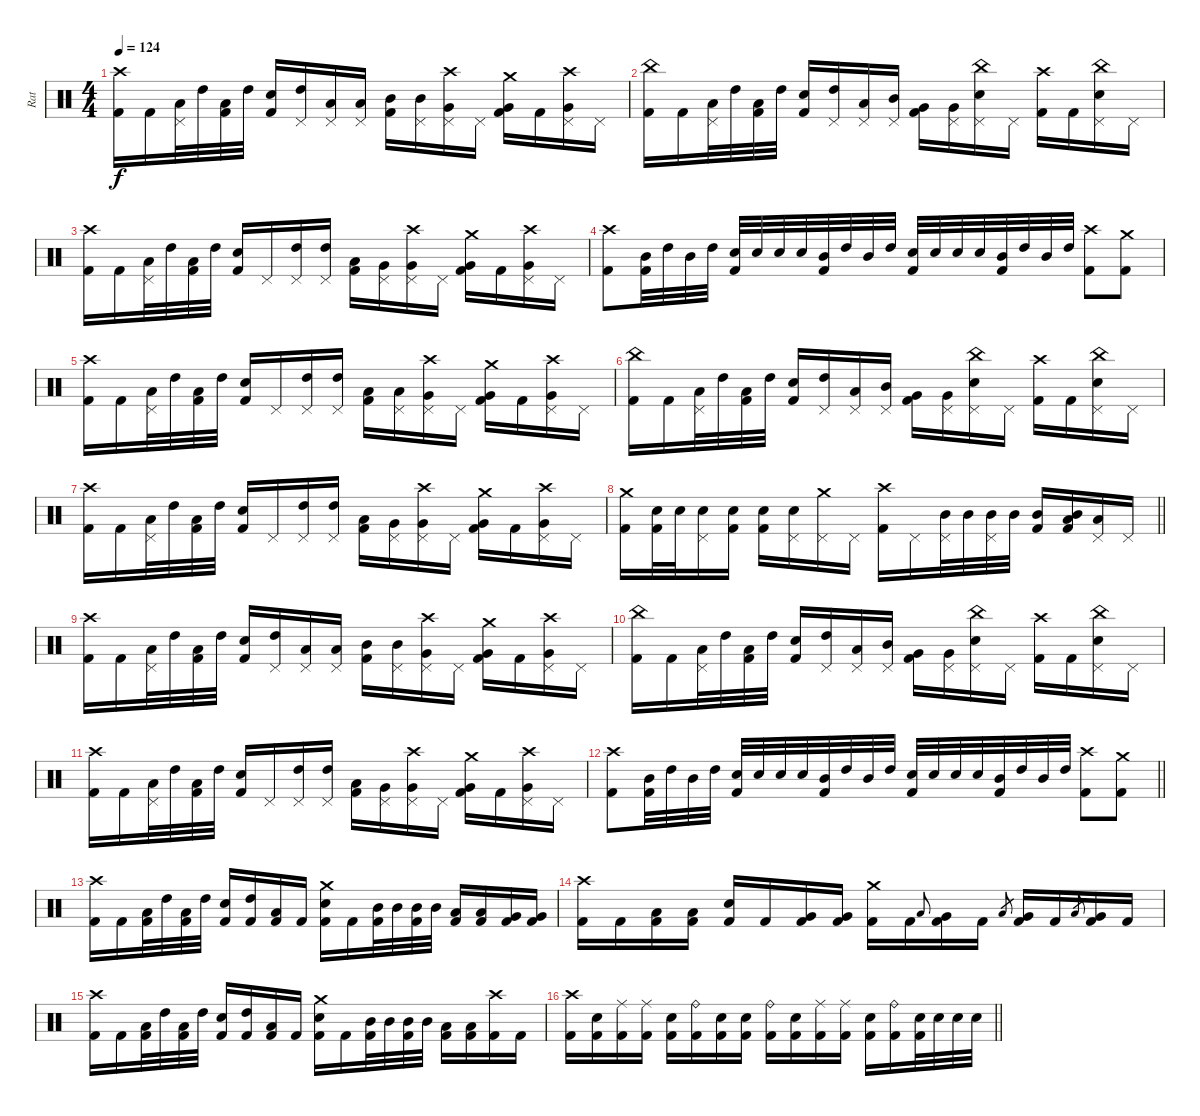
\track ("Rat" "Rat") {instrument percussion}
\staff {score}
\articulation defaults
\ts (4 4)
\tempo 124
\clef neutral
\ks c
("Crash high (hit)" "Kick (hit) 2").16{dy f} "Kick (hit) 2".16 ("Low Tom (hit)" "Pedal Hi-Hat (hit)").32 "High Tom (hit)".32 ("Low Tom (hit)" "Kick (hit) 2").32 "High Tom (hit)".32 ("Electric Snare (hit)" "Kick (hit) 2").16 ("High Tom (hit)" "Pedal Hi-Hat (hit)").16 ("Low Tom (hit)" "Pedal Hi-Hat (hit)").16 ("Low Tom (hit)" "Pedal Hi-Hat (hit)").16 ("Mid Tom (hit)" "Kick (hit) 2").16 ("Mid Tom (hit)" "Pedal Hi-Hat (hit)").16 ("Crash high (hit)" "Very Low Tom (hit)" "Pedal Hi-Hat (hit)").16 "Pedal Hi-Hat (hit)".16 ("Crash medium (hit)" "Very Low Tom (hit)" "Kick (hit) 2").16 "Kick (hit) 2".16 ("Crash high (hit)" "Very Low Tom (hit)" "Pedal Hi-Hat (hit)").16 "Pedal Hi-Hat (hit)".16 |
("China (hit)" "Kick (hit) 2").16 "Kick (hit) 2".16 ("Low Tom (hit)" "Pedal Hi-Hat (hit)").32 "High Tom (hit)".32 ("Low Tom (hit)" "Kick (hit) 2").32 "High Tom (hit)".32 ("Electric Snare (hit)" "Kick (hit) 2").16 ("High Tom (hit)" "Pedal Hi-Hat (hit)").16 ("Low Tom (hit)" "Pedal Hi-Hat (hit)").16 ("Mid Tom (hit)" "Pedal Hi-Hat (hit)").16 ("Very Low Tom (hit)" "Kick (hit) 2").16 ("Very Low Tom (hit)" "Pedal Hi-Hat (hit)").16 ("China (hit)" "Electric Snare (hit)" "Pedal Hi-Hat (hit)").16 "Pedal Hi-Hat (hit)".16 ("Crash high (hit)" "Kick (hit) 2").16 "Kick (hit) 2".16 ("China (hit)" "Electric Snare (hit)" "Pedal Hi-Hat (hit)").16 "Pedal Hi-Hat (hit)".16 |
("Crash high (hit)" "Kick (hit) 2").16 "Kick (hit) 2".16 ("Low Tom (hit)" "Pedal Hi-Hat (hit)").32 "High Tom (hit)".32 ("Low Tom (hit)" "Kick (hit) 2").32 "High Tom (hit)".32 ("Electric Snare (hit)" "Kick (hit) 2").16 "Pedal Hi-Hat (hit)".16 ("High Tom (hit)" "Pedal Hi-Hat (hit)").16 ("High Tom (hit)" "Pedal Hi-Hat (hit)").16 ("Low Tom (hit)" "Kick (hit) 2").16 ("Very Low Tom (hit)" "Pedal Hi-Hat (hit)").16 ("Crash high (hit)" "Very Low Tom (hit)" "Pedal Hi-Hat (hit)").16 "Pedal Hi-Hat (hit)".16 ("Crash medium (hit)" "Very Low Tom (hit)" "Kick (hit) 2").16 "Kick (hit) 2".16 ("Crash high (hit)" "Very Low Tom (hit)" "Pedal Hi-Hat (hit)").16 "Pedal Hi-Hat (hit)".16 |
("Crash high (hit)" "Kick (hit) 2").8 ("Mid Tom (hit)" "Kick (hit) 2").32 "High Tom (hit)".32 "Mid Tom (hit)".32 "High Tom (hit)".32 ("Electric Snare (hit)" "Kick (hit) 2").32 "Electric Snare (hit)".32 "Electric Snare (hit)".32 "Electric Snare (hit)".32 ("Mid Tom (hit)" "Kick (hit) 2").32 "High Tom (hit)".32 "Mid Tom (hit)".32 "High Tom (hit)".32 ("Electric Snare (hit)" "Kick (hit) 2").32 "Electric Snare (hit)".32 "Electric Snare (hit)".32 "Electric Snare (hit)".32 ("Mid Tom (hit)" "Kick (hit) 2").32 "High Tom (hit)".32 "Mid Tom (hit)".32 "High Tom (hit)".32 ("Crash high (hit)" "Kick (hit) 2").8 ("Crash medium (hit)" "Kick (hit) 2").8 |
("Crash high (hit)" "Kick (hit) 2").16 "Kick (hit) 2".16 ("Low Tom (hit)" "Pedal Hi-Hat (hit)").32 "High Tom (hit)".32 ("Low Tom (hit)" "Kick (hit) 2").32 "High Tom (hit)".32 ("Electric Snare (hit)" "Kick (hit) 2").16 "Pedal Hi-Hat (hit)".16 ("High Tom (hit)" "Pedal Hi-Hat (hit)").16 ("High Tom (hit)" "Pedal Hi-Hat (hit)").16 ("Low Tom (hit)" "Kick (hit) 2").16 ("Low Tom (hit)" "Pedal Hi-Hat (hit)").16 ("Crash high (hit)" "Very Low Tom (hit)" "Pedal Hi-Hat (hit)").16 "Pedal Hi-Hat (hit)".16 ("Crash medium (hit)" "Very Low Tom (hit)" "Kick (hit) 2").16 "Kick (hit) 2".16 ("Crash high (hit)" "Very Low Tom (hit)" "Pedal Hi-Hat (hit)").16 "Pedal Hi-Hat (hit)".16 |
("China (hit)" "Kick (hit) 2").16 "Kick (hit) 2".16 ("Low Tom (hit)" "Pedal Hi-Hat (hit)").32 "High Tom (hit)".32 ("Low Tom (hit)" "Kick (hit) 2").32 "High Tom (hit)".32 ("Electric Snare (hit)" "Kick (hit) 2").16 ("High Tom (hit)" "Pedal Hi-Hat (hit)").16 ("Low Tom (hit)" "Pedal Hi-Hat (hit)").16 ("Mid Tom (hit)" "Pedal Hi-Hat (hit)").16 ("Very Low Tom (hit)" "Kick (hit) 2").16 ("Very Low Tom (hit)" "Pedal Hi-Hat (hit)").16 ("China (hit)" "Electric Snare (hit)" "Pedal Hi-Hat (hit)").16 "Pedal Hi-Hat (hit)".16 ("Crash high (hit)" "Kick (hit) 2").16 "Kick (hit) 2".16 ("China (hit)" "Electric Snare (hit)" "Pedal Hi-Hat (hit)").16 "Pedal Hi-Hat (hit)".16 |
("Crash high (hit)" "Kick (hit) 2").16 "Kick (hit) 2".16 ("Low Tom (hit)" "Pedal Hi-Hat (hit)").32 "High Tom (hit)".32 ("Low Tom (hit)" "Kick (hit) 2").32 "High Tom (hit)".32 ("Electric Snare (hit)" "Kick (hit) 2").16 "Pedal Hi-Hat (hit)".16 ("High Tom (hit)" "Pedal Hi-Hat (hit)").16 ("High Tom (hit)" "Pedal Hi-Hat (hit)").16 ("Low Tom (hit)" "Kick (hit) 2").16 ("Very Low Tom (hit)" "Pedal Hi-Hat (hit)").16 ("Crash high (hit)" "Very Low Tom (hit)" "Pedal Hi-Hat (hit)").16 "Pedal Hi-Hat (hit)".16 ("Crash medium (hit)" "Very Low Tom (hit)" "Kick (hit) 2").16 "Kick (hit) 2".16 ("Crash high (hit)" "Very Low Tom (hit)" "Pedal Hi-Hat (hit)").16 "Pedal Hi-Hat (hit)".16 |
\barLineRight lightlight
("Crash medium (hit)" "Kick (hit) 2").16 ("Electric Snare (hit)" "Kick (hit) 2").32 "Electric Snare (hit)".32 ("Electric Snare (hit)" "Pedal Hi-Hat (hit)").16 ("Electric Snare (hit)" "Kick (hit) 2").16 ("Electric Snare (hit)" "Kick (hit) 2").16 ("Electric Snare (hit)" "Pedal Hi-Hat (hit)").16 ("Crash medium (hit)" "Pedal Hi-Hat (hit)").16 "Pedal Hi-Hat (hit)".16 ("Crash high (hit)" "Kick (hit) 2").16 "Pedal Hi-Hat (hit)".16 ("Mid Tom (hit)" "Pedal Hi-Hat (hit)").32 "Mid Tom (hit)".32 ("Mid Tom (hit)" "Pedal Hi-Hat (hit)").32 "Mid Tom (hit)".32 ("Mid Tom (hit)" "Kick (hit) 2").16 ("Mid Tom (hit)" "Low Tom (hit)" "Kick (hit) 2").16 ("Low Tom (hit)" "Pedal Hi-Hat (hit)").16 "Pedal Hi-Hat (hit)".16 |
("Crash high (hit)" "Kick (hit) 2").16 "Kick (hit) 2".16 ("Low Tom (hit)" "Pedal Hi-Hat (hit)").32 "High Tom (hit)".32 ("Low Tom (hit)" "Kick (hit) 2").32 "High Tom (hit)".32 ("Electric Snare (hit)" "Kick (hit) 2").16 ("High Tom (hit)" "Pedal Hi-Hat (hit)").16 ("Low Tom (hit)" "Pedal Hi-Hat (hit)").16 ("Low Tom (hit)" "Pedal Hi-Hat (hit)").16 ("Mid Tom (hit)" "Kick (hit) 2").16 ("Mid Tom (hit)" "Pedal Hi-Hat (hit)").16 ("Crash high (hit)" "Very Low Tom (hit)" "Pedal Hi-Hat (hit)").16 "Pedal Hi-Hat (hit)".16 ("Crash medium (hit)" "Very Low Tom (hit)" "Kick (hit) 2").16 "Kick (hit) 2".16 ("Crash high (hit)" "Very Low Tom (hit)" "Pedal Hi-Hat (hit)").16 "Pedal Hi-Hat (hit)".16 |
("China (hit)" "Kick (hit) 2").16 "Kick (hit) 2".16 ("Low Tom (hit)" "Pedal Hi-Hat (hit)").32 "High Tom (hit)".32 ("Low Tom (hit)" "Kick (hit) 2").32 "High Tom (hit)".32 ("Electric Snare (hit)" "Kick (hit) 2").16 ("High Tom (hit)" "Pedal Hi-Hat (hit)").16 ("Low Tom (hit)" "Pedal Hi-Hat (hit)").16 ("Mid Tom (hit)" "Pedal Hi-Hat (hit)").16 ("Very Low Tom (hit)" "Kick (hit) 2").16 ("Very Low Tom (hit)" "Pedal Hi-Hat (hit)").16 ("China (hit)" "Electric Snare (hit)" "Pedal Hi-Hat (hit)").16 "Pedal Hi-Hat (hit)".16 ("Crash high (hit)" "Kick (hit) 2").16 "Kick (hit) 2".16 ("China (hit)" "Electric Snare (hit)" "Pedal Hi-Hat (hit)").16 "Pedal Hi-Hat (hit)".16 |
("Crash high (hit)" "Kick (hit) 2").16 "Kick (hit) 2".16 ("Low Tom (hit)" "Pedal Hi-Hat (hit)").32 "High Tom (hit)".32 ("Low Tom (hit)" "Kick (hit) 2").32 "High Tom (hit)".32 ("Electric Snare (hit)" "Kick (hit) 2").16 "Pedal Hi-Hat (hit)".16 ("High Tom (hit)" "Pedal Hi-Hat (hit)").16 ("High Tom (hit)" "Pedal Hi-Hat (hit)").16 ("Low Tom (hit)" "Kick (hit) 2").16 ("Very Low Tom (hit)" "Pedal Hi-Hat (hit)").16 ("Crash high (hit)" "Very Low Tom (hit)" "Pedal Hi-Hat (hit)").16 "Pedal Hi-Hat (hit)".16 ("Crash medium (hit)" "Very Low Tom (hit)" "Kick (hit) 2").16 "Kick (hit) 2".16 ("Crash high (hit)" "Very Low Tom (hit)" "Pedal Hi-Hat (hit)").16 "Pedal Hi-Hat (hit)".16 |
\barLineRight lightlight
("Crash high (hit)" "Kick (hit) 2").8 ("Mid Tom (hit)" "Kick (hit) 2").32 "High Tom (hit)".32 "Mid Tom (hit)".32 "High Tom (hit)".32 ("Electric Snare (hit)" "Kick (hit) 2").32 "Electric Snare (hit)".32 "Electric Snare (hit)".32 "Electric Snare (hit)".32 ("Mid Tom (hit)" "Kick (hit) 2").32 "High Tom (hit)".32 "Mid Tom (hit)".32 "High Tom (hit)".32 ("Electric Snare (hit)" "Kick (hit) 2").32 "Electric Snare (hit)".32 "Electric Snare (hit)".32 "Electric Snare (hit)".32 ("Mid Tom (hit)" "Kick (hit) 2").32 "High Tom (hit)".32 "Mid Tom (hit)".32 "High Tom (hit)".32 ("Crash high (hit)" "Kick (hit) 2").8 ("Crash medium (hit)" "Kick (hit) 2").8 |
("Crash high (hit)" "Kick (hit) 2").16 "Kick (hit) 2".16 ("Low Tom (hit)" "Kick (hit) 2").32 "High Tom (hit)".32 ("Low Tom (hit)" "Kick (hit) 2").32 "High Tom (hit)".32 ("Electric Snare (hit)" "Kick (hit) 2").16 ("High Tom (hit)" "Kick (hit) 2").16 ("Low Tom (hit)" "Kick (hit) 2").16 "Kick (hit) 2".16 ("Crash medium (hit)" "Electric Snare (hit)" "Kick (hit) 2").16 "Kick (hit) 2".16 ("Mid Tom (hit)" "Kick (hit) 2").32 "Mid Tom (hit)".32 ("Mid Tom (hit)" "Kick (hit) 2").32 "Mid Tom (hit)".32 ("Low Tom (hit)" "Kick (hit) 2").16 ("Low Tom (hit)" "Kick (hit) 2").16 ("Very Low Tom (hit)" "Kick (hit) 2").16 ("Very Low Tom (hit)" "Kick (hit) 2").16 |
("Crash high (hit)" "Kick (hit) 2").16 "Kick (hit) 2".16 ("Low Tom (hit)" "Kick (hit) 2").16 ("Low Tom (hit)" "Kick (hit) 2").16 ("Electric Snare (hit)" "Kick (hit) 2").16 "Kick (hit) 2".16 ("Very Low Tom (hit)" "Kick (hit) 2").16 ("Very Low Tom (hit)" "Kick (hit) 2").16 ("Crash medium (hit)" "Kick (hit) 2").16 "Kick (hit) 2".16 "Low Tom (hit)".8{gr onbeat} ("Very Low Tom (hit)" "Kick (hit) 2").16 "Kick (hit) 2".16 "Low Tom (hit)".8{gr} ("Very Low Tom (hit)" "Kick (hit) 2").16 "Kick (hit) 2".16 "Low Tom (hit)".8{gr} ("Very Low Tom (hit)" "Kick (hit) 2").16 "Kick (hit) 2".16 |
("Crash high (hit)" "Kick (hit) 2").16 "Kick (hit) 2".16 ("Low Tom (hit)" "Kick (hit) 2").32 "High Tom (hit)".32 ("Low Tom (hit)" "Kick (hit) 2").32 "High Tom (hit)".32 ("Electric Snare (hit)" "Kick (hit) 2").16 ("High Tom (hit)" "Kick (hit) 2").16 ("Low Tom (hit)" "Kick (hit) 2").16 "Kick (hit) 2".16 ("Crash medium (hit)" "Electric Snare (hit)" "Kick (hit) 2").16 "Kick (hit) 2".16 ("Mid Tom (hit)" "Kick (hit) 2").32 "Mid Tom (hit)".32 ("Mid Tom (hit)" "Kick (hit) 2").32 "Mid Tom (hit)".32 ("Low Tom (hit)" "Kick (hit) 2").16 ("Low Tom (hit)" "Kick (hit) 2").16 ("Crash high (hit)" "Kick (hit) 2").16 "Kick (hit) 2".16 |
\barLineRight lightlight
("Crash high (hit)" "Kick (hit) 2").16 ("Electric Snare (hit)" "Kick (hit) 2").16 ("Ride (middle)" "Kick (hit) 2").16 ("Ride (middle)" "Kick (hit) 2").16 ("Electric Snare (hit)" "Kick (hit) 2").16 ("Ride (bell)" "Kick (hit) 2").16 ("Electric Snare (hit)" "Kick (hit) 2").16 ("Electric Snare (hit)" "Kick (hit) 2").16 ("Ride (bell)" "Kick (hit) 2").16 ("Electric Snare (hit)" "Kick (hit) 2").16 ("Ride (middle)" "Kick (hit) 2").16 ("Ride (middle)" "Kick (hit) 2").16 ("Electric Snare (hit)" "Kick (hit) 2").16 ("Ride (bell)" "Kick (hit) 2").16 ("Electric Snare (hit)" "Kick (hit) 2").32 "Electric Snare (hit)".32 "Electric Snare (hit)".32 "Electric Snare (hit)".32
